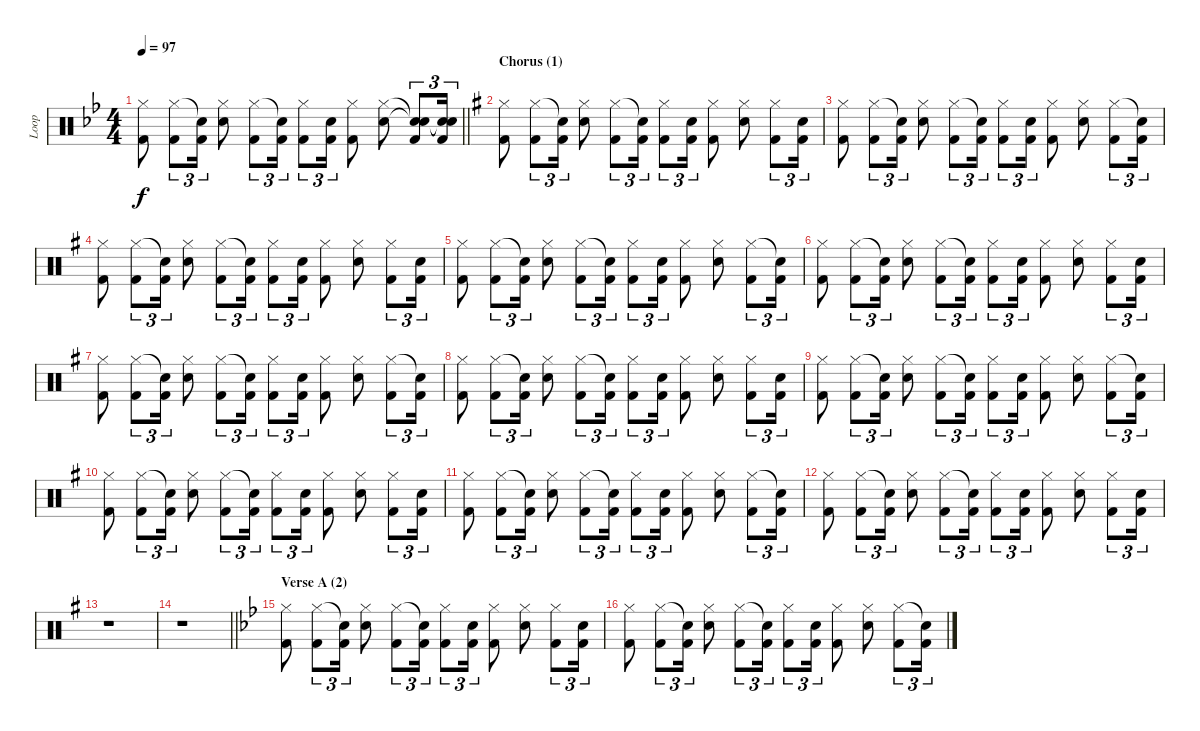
\track ("Loop" "Loop") {instrument percussion}
\staff {score}
\articulation defaults
\ts (4 4)
\tempo 97
\clef neutral
\barLineRight lightlight
\ks bb
("Hi-Hat (closed)" "Kick (hit) 2").8{dy f} ("Hi-Hat (closed)" "Kick (hit) 2").8{tu (3 2)} ("Snare (hit)"{t} "Kick (hit) 2").16{tu (3 2)} ("Hi-Hat (closed)" "Electric Snare (hit)").8 ("Hi-Hat (closed)" "Kick (hit) 2").8{tu (3 2)} ("Snare (hit)"{t} "Kick (hit) 2").16{tu (3 2)} ("Hi-Hat (closed)" "Kick (hit) 2").8{tu (3 2)} ("Electric Snare (hit)" "Kick (hit) 2").16{tu (3 2)} ("Hi-Hat (closed)" "Kick (hit) 2").8 ("Hi-Hat (closed)" "Electric Snare (hit)").8 ("Snare (hit)"{t} "Snare (hit)"{t} "Kick (hit) 2").8{tu (3 2)} ("Snare (hit)"{t} "Snare (hit)"{t} "Kick (hit) 2").16{tu (3 2)} |
\section ("" "Chorus (1)")
\ks g
("Hi-Hat (closed)" "Kick (hit) 2").8 ("Hi-Hat (closed)" "Kick (hit) 2").8{tu (3 2)} ("Snare (hit)"{t} "Kick (hit) 2").16{tu (3 2)} ("Hi-Hat (closed)" "Electric Snare (hit)").8 ("Hi-Hat (closed)" "Kick (hit) 2").8{tu (3 2)} ("Snare (hit)"{t} "Kick (hit) 2").16{tu (3 2)} ("Hi-Hat (closed)" "Kick (hit) 2").8{tu (3 2)} ("Electric Snare (hit)" "Kick (hit) 2").16{tu (3 2)} ("Hi-Hat (closed)" "Kick (hit) 2").8 ("Hi-Hat (closed)" "Electric Snare (hit)").8 ("Hi-Hat (closed)" "Kick (hit) 2").8{tu (3 2)} ("Electric Snare (hit)" "Kick (hit) 2").16{tu (3 2)} |
("Hi-Hat (closed)" "Kick (hit) 2").8 ("Hi-Hat (closed)" "Kick (hit) 2").8{tu (3 2)} ("Snare (hit)"{t} "Kick (hit) 2").16{tu (3 2)} ("Hi-Hat (closed)" "Electric Snare (hit)").8 ("Hi-Hat (closed)" "Kick (hit) 2").8{tu (3 2)} ("Snare (hit)"{t} "Kick (hit) 2").16{tu (3 2)} ("Hi-Hat (closed)" "Kick (hit) 2").8{tu (3 2)} ("Electric Snare (hit)" "Kick (hit) 2").16{tu (3 2)} ("Hi-Hat (closed)" "Kick (hit) 2").8 ("Hi-Hat (closed)" "Electric Snare (hit)").8 ("Hi-Hat (closed)" "Kick (hit) 2").8{tu (3 2)} ("Snare (hit)"{t} "Kick (hit) 2").16{tu (3 2)} |
("Hi-Hat (closed)" "Kick (hit) 2").8 ("Hi-Hat (closed)" "Kick (hit) 2").8{tu (3 2)} ("Snare (hit)"{t} "Kick (hit) 2").16{tu (3 2)} ("Hi-Hat (closed)" "Electric Snare (hit)").8 ("Hi-Hat (closed)" "Kick (hit) 2").8{tu (3 2)} ("Snare (hit)"{t} "Kick (hit) 2").16{tu (3 2)} ("Hi-Hat (closed)" "Kick (hit) 2").8{tu (3 2)} ("Electric Snare (hit)" "Kick (hit) 2").16{tu (3 2)} ("Hi-Hat (closed)" "Kick (hit) 2").8 ("Hi-Hat (closed)" "Electric Snare (hit)").8 ("Hi-Hat (closed)" "Kick (hit) 2").8{tu (3 2)} ("Electric Snare (hit)" "Kick (hit) 2").16{tu (3 2)} |
("Hi-Hat (closed)" "Kick (hit) 2").8 ("Hi-Hat (closed)" "Kick (hit) 2").8{tu (3 2)} ("Snare (hit)"{t} "Kick (hit) 2").16{tu (3 2)} ("Hi-Hat (closed)" "Electric Snare (hit)").8 ("Hi-Hat (closed)" "Kick (hit) 2").8{tu (3 2)} ("Snare (hit)"{t} "Kick (hit) 2").16{tu (3 2)} ("Hi-Hat (closed)" "Kick (hit) 2").8{tu (3 2)} ("Electric Snare (hit)" "Kick (hit) 2").16{tu (3 2)} ("Hi-Hat (closed)" "Kick (hit) 2").8 ("Hi-Hat (closed)" "Electric Snare (hit)").8 ("Hi-Hat (closed)" "Kick (hit) 2").8{tu (3 2)} ("Snare (hit)"{t} "Kick (hit) 2").16{tu (3 2)} |
("Hi-Hat (closed)" "Kick (hit) 2").8 ("Hi-Hat (closed)" "Kick (hit) 2").8{tu (3 2)} ("Snare (hit)"{t} "Kick (hit) 2").16{tu (3 2)} ("Hi-Hat (closed)" "Electric Snare (hit)").8 ("Hi-Hat (closed)" "Kick (hit) 2").8{tu (3 2)} ("Snare (hit)"{t} "Kick (hit) 2").16{tu (3 2)} ("Hi-Hat (closed)" "Kick (hit) 2").8{tu (3 2)} ("Electric Snare (hit)" "Kick (hit) 2").16{tu (3 2)} ("Hi-Hat (closed)" "Kick (hit) 2").8 ("Hi-Hat (closed)" "Electric Snare (hit)").8 ("Hi-Hat (closed)" "Kick (hit) 2").8{tu (3 2)} ("Electric Snare (hit)" "Kick (hit) 2").16{tu (3 2)} |
("Hi-Hat (closed)" "Kick (hit) 2").8 ("Hi-Hat (closed)" "Kick (hit) 2").8{tu (3 2)} ("Snare (hit)"{t} "Kick (hit) 2").16{tu (3 2)} ("Hi-Hat (closed)" "Electric Snare (hit)").8 ("Hi-Hat (closed)" "Kick (hit) 2").8{tu (3 2)} ("Snare (hit)"{t} "Kick (hit) 2").16{tu (3 2)} ("Hi-Hat (closed)" "Kick (hit) 2").8{tu (3 2)} ("Electric Snare (hit)" "Kick (hit) 2").16{tu (3 2)} ("Hi-Hat (closed)" "Kick (hit) 2").8 ("Hi-Hat (closed)" "Electric Snare (hit)").8 ("Hi-Hat (closed)" "Kick (hit) 2").8{tu (3 2)} ("Snare (hit)"{t} "Kick (hit) 2").16{tu (3 2)} |
("Hi-Hat (closed)" "Kick (hit) 2").8 ("Hi-Hat (closed)" "Kick (hit) 2").8{tu (3 2)} ("Snare (hit)"{t} "Kick (hit) 2").16{tu (3 2)} ("Hi-Hat (closed)" "Electric Snare (hit)").8 ("Hi-Hat (closed)" "Kick (hit) 2").8{tu (3 2)} ("Snare (hit)"{t} "Kick (hit) 2").16{tu (3 2)} ("Hi-Hat (closed)" "Kick (hit) 2").8{tu (3 2)} ("Electric Snare (hit)" "Kick (hit) 2").16{tu (3 2)} ("Hi-Hat (closed)" "Kick (hit) 2").8 ("Hi-Hat (closed)" "Electric Snare (hit)").8 ("Hi-Hat (closed)" "Kick (hit) 2").8{tu (3 2)} ("Electric Snare (hit)" "Kick (hit) 2").16{tu (3 2)} |
("Hi-Hat (closed)" "Kick (hit) 2").8 ("Hi-Hat (closed)" "Kick (hit) 2").8{tu (3 2)} ("Snare (hit)"{t} "Kick (hit) 2").16{tu (3 2)} ("Hi-Hat (closed)" "Electric Snare (hit)").8 ("Hi-Hat (closed)" "Kick (hit) 2").8{tu (3 2)} ("Snare (hit)"{t} "Kick (hit) 2").16{tu (3 2)} ("Hi-Hat (closed)" "Kick (hit) 2").8{tu (3 2)} ("Electric Snare (hit)" "Kick (hit) 2").16{tu (3 2)} ("Hi-Hat (closed)" "Kick (hit) 2").8 ("Hi-Hat (closed)" "Electric Snare (hit)").8 ("Hi-Hat (closed)" "Kick (hit) 2").8{tu (3 2)} ("Snare (hit)"{t} "Kick (hit) 2").16{tu (3 2)} |
("Hi-Hat (closed)" "Kick (hit) 2").8 ("Hi-Hat (closed)" "Kick (hit) 2").8{tu (3 2)} ("Snare (hit)"{t} "Kick (hit) 2").16{tu (3 2)} ("Hi-Hat (closed)" "Electric Snare (hit)").8 ("Hi-Hat (closed)" "Kick (hit) 2").8{tu (3 2)} ("Snare (hit)"{t} "Kick (hit) 2").16{tu (3 2)} ("Hi-Hat (closed)" "Kick (hit) 2").8{tu (3 2)} ("Electric Snare (hit)" "Kick (hit) 2").16{tu (3 2)} ("Hi-Hat (closed)" "Kick (hit) 2").8 ("Hi-Hat (closed)" "Electric Snare (hit)").8 ("Hi-Hat (closed)" "Kick (hit) 2").8{tu (3 2)} ("Electric Snare (hit)" "Kick (hit) 2").16{tu (3 2)} |
("Hi-Hat (closed)" "Kick (hit) 2").8 ("Hi-Hat (closed)" "Kick (hit) 2").8{tu (3 2)} ("Snare (hit)"{t} "Kick (hit) 2").16{tu (3 2)} ("Hi-Hat (closed)" "Electric Snare (hit)").8 ("Hi-Hat (closed)" "Kick (hit) 2").8{tu (3 2)} ("Snare (hit)"{t} "Kick (hit) 2").16{tu (3 2)} ("Hi-Hat (closed)" "Kick (hit) 2").8{tu (3 2)} ("Electric Snare (hit)" "Kick (hit) 2").16{tu (3 2)} ("Hi-Hat (closed)" "Kick (hit) 2").8 ("Hi-Hat (closed)" "Electric Snare (hit)").8 ("Hi-Hat (closed)" "Kick (hit) 2").8{tu (3 2)} ("Snare (hit)"{t} "Kick (hit) 2").16{tu (3 2)} |
("Hi-Hat (closed)" "Kick (hit) 2").8 ("Hi-Hat (closed)" "Kick (hit) 2").8{tu (3 2)} ("Snare (hit)"{t} "Kick (hit) 2").16{tu (3 2)} ("Hi-Hat (closed)" "Electric Snare (hit)").8 ("Hi-Hat (closed)" "Kick (hit) 2").8{tu (3 2)} ("Snare (hit)"{t} "Kick (hit) 2").16{tu (3 2)} ("Hi-Hat (closed)" "Kick (hit) 2").8{tu (3 2)} ("Electric Snare (hit)" "Kick (hit) 2").16{tu (3 2)} ("Hi-Hat (closed)" "Kick (hit) 2").8 ("Hi-Hat (closed)" "Electric Snare (hit)").8 ("Hi-Hat (closed)" "Kick (hit) 2").8{tu (3 2)} ("Electric Snare (hit)" "Kick (hit) 2").16{tu (3 2)} |
r.1 |
\barLineRight lightlight
r.1 |
\section ("" "Verse A (2)")
\ks bb
("Hi-Hat (closed)" "Kick (hit) 2").8 ("Hi-Hat (closed)" "Kick (hit) 2").8{tu (3 2)} ("Snare (hit)"{t} "Kick (hit) 2").16{tu (3 2)} ("Hi-Hat (closed)" "Electric Snare (hit)").8 ("Hi-Hat (closed)" "Kick (hit) 2").8{tu (3 2)} ("Snare (hit)"{t} "Kick (hit) 2").16{tu (3 2)} ("Hi-Hat (closed)" "Kick (hit) 2").8{tu (3 2)} ("Electric Snare (hit)" "Kick (hit) 2").16{tu (3 2)} ("Hi-Hat (closed)" "Kick (hit) 2").8 ("Hi-Hat (closed)" "Electric Snare (hit)").8 ("Hi-Hat (closed)" "Kick (hit) 2").8{tu (3 2)} ("Electric Snare (hit)" "Kick (hit) 2").16{tu (3 2)} |
("Hi-Hat (closed)" "Kick (hit) 2").8 ("Hi-Hat (closed)" "Kick (hit) 2").8{tu (3 2)} ("Snare (hit)"{t} "Kick (hit) 2").16{tu (3 2)} ("Hi-Hat (closed)" "Electric Snare (hit)").8 ("Hi-Hat (closed)" "Kick (hit) 2").8{tu (3 2)} ("Snare (hit)"{t} "Kick (hit) 2").16{tu (3 2)} ("Hi-Hat (closed)" "Kick (hit) 2").8{tu (3 2)} ("Electric Snare (hit)" "Kick (hit) 2").16{tu (3 2)} ("Hi-Hat (closed)" "Kick (hit) 2").8 ("Hi-Hat (closed)" "Electric Snare (hit)").8 ("Hi-Hat (closed)" "Kick (hit) 2").8{tu (3 2)} ("Snare (hit)"{t} "Kick (hit) 2").16{tu (3 2)}
